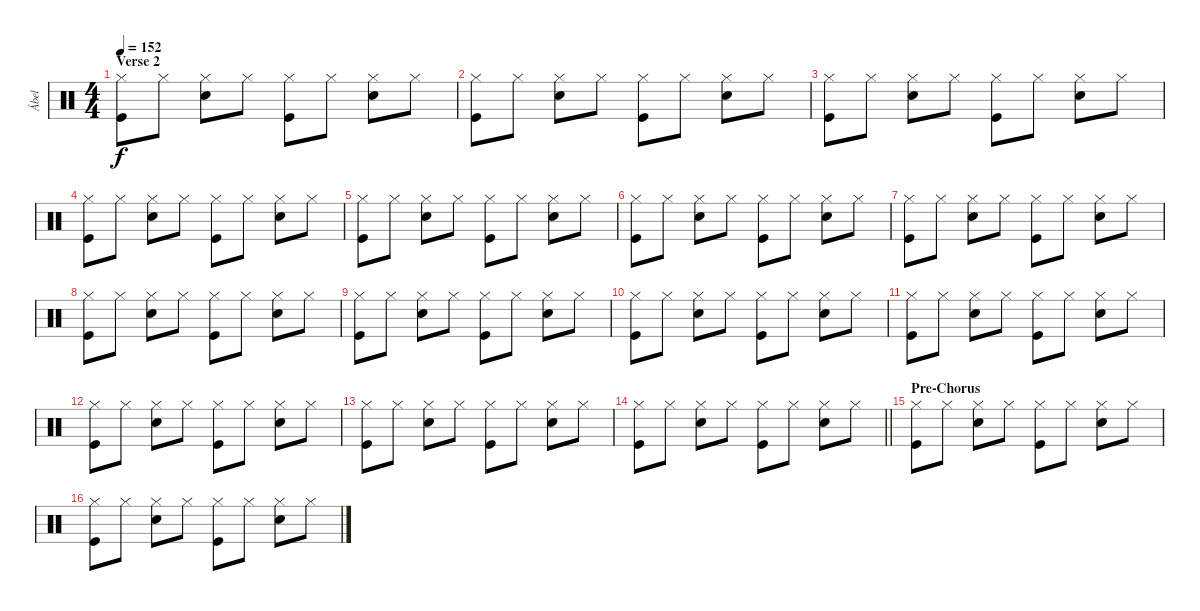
\track ("Ábel" "Ábel") {instrument percussion}
\staff {score}
\articulation defaults
\ts (4 4)
\section ("" "Verse 2")
\tempo 152
\clef neutral
\ks c
("Hi-Hat (closed)" "Kick (hit)").8{dy f} "Hi-Hat (closed)".8 ("Hi-Hat (closed)" "Snare (hit) 2").8 "Hi-Hat (closed)".8 ("Hi-Hat (closed)" "Kick (hit)").8 "Hi-Hat (closed)".8 ("Hi-Hat (closed)" "Snare (hit) 2").8 "Hi-Hat (closed)".8 |
("Hi-Hat (closed)" "Kick (hit)").8 "Hi-Hat (closed)".8 ("Hi-Hat (closed)" "Snare (hit) 2").8 "Hi-Hat (closed)".8 ("Hi-Hat (closed)" "Kick (hit)").8 "Hi-Hat (closed)".8 ("Hi-Hat (closed)" "Snare (hit) 2").8 "Hi-Hat (closed)".8 |
("Hi-Hat (closed)" "Kick (hit)").8 "Hi-Hat (closed)".8 ("Hi-Hat (closed)" "Snare (hit) 2").8 "Hi-Hat (closed)".8 ("Hi-Hat (closed)" "Kick (hit)").8 "Hi-Hat (closed)".8 ("Hi-Hat (closed)" "Snare (hit) 2").8 "Hi-Hat (closed)".8 |
("Hi-Hat (closed)" "Kick (hit)").8 "Hi-Hat (closed)".8 ("Hi-Hat (closed)" "Snare (hit) 2").8 "Hi-Hat (closed)".8 ("Hi-Hat (closed)" "Kick (hit)").8 "Hi-Hat (closed)".8 ("Hi-Hat (closed)" "Snare (hit) 2").8 "Hi-Hat (closed)".8 |
("Hi-Hat (closed)" "Kick (hit)").8 "Hi-Hat (closed)".8 ("Hi-Hat (closed)" "Snare (hit) 2").8 "Hi-Hat (closed)".8 ("Hi-Hat (closed)" "Kick (hit)").8 "Hi-Hat (closed)".8 ("Hi-Hat (closed)" "Snare (hit) 2").8 "Hi-Hat (closed)".8 |
("Hi-Hat (closed)" "Kick (hit)").8 "Hi-Hat (closed)".8 ("Hi-Hat (closed)" "Snare (hit) 2").8 "Hi-Hat (closed)".8 ("Hi-Hat (closed)" "Kick (hit)").8 "Hi-Hat (closed)".8 ("Hi-Hat (closed)" "Snare (hit) 2").8 "Hi-Hat (closed)".8 |
("Hi-Hat (closed)" "Kick (hit)").8 "Hi-Hat (closed)".8 ("Hi-Hat (closed)" "Snare (hit) 2").8 "Hi-Hat (closed)".8 ("Hi-Hat (closed)" "Kick (hit)").8 "Hi-Hat (closed)".8 ("Hi-Hat (closed)" "Snare (hit) 2").8 "Hi-Hat (closed)".8 |
("Hi-Hat (closed)" "Kick (hit)").8 "Hi-Hat (closed)".8 ("Hi-Hat (closed)" "Snare (hit) 2").8 "Hi-Hat (closed)".8 ("Hi-Hat (closed)" "Kick (hit)").8 "Hi-Hat (closed)".8 ("Hi-Hat (closed)" "Snare (hit) 2").8 "Hi-Hat (closed)".8 |
("Hi-Hat (closed)" "Kick (hit)").8 "Hi-Hat (closed)".8 ("Hi-Hat (closed)" "Snare (hit) 2").8 "Hi-Hat (closed)".8 ("Hi-Hat (closed)" "Kick (hit)").8 "Hi-Hat (closed)".8 ("Hi-Hat (closed)" "Snare (hit) 2").8 "Hi-Hat (closed)".8 |
("Hi-Hat (closed)" "Kick (hit)").8 "Hi-Hat (closed)".8 ("Hi-Hat (closed)" "Snare (hit) 2").8 "Hi-Hat (closed)".8 ("Hi-Hat (closed)" "Kick (hit)").8 "Hi-Hat (closed)".8 ("Hi-Hat (closed)" "Snare (hit) 2").8 "Hi-Hat (closed)".8 |
("Hi-Hat (closed)" "Kick (hit)").8 "Hi-Hat (closed)".8 ("Hi-Hat (closed)" "Snare (hit) 2").8 "Hi-Hat (closed)".8 ("Hi-Hat (closed)" "Kick (hit)").8 "Hi-Hat (closed)".8 ("Hi-Hat (closed)" "Snare (hit) 2").8 "Hi-Hat (closed)".8 |
("Hi-Hat (closed)" "Kick (hit)").8 "Hi-Hat (closed)".8 ("Hi-Hat (closed)" "Snare (hit) 2").8 "Hi-Hat (closed)".8 ("Hi-Hat (closed)" "Kick (hit)").8 "Hi-Hat (closed)".8 ("Hi-Hat (closed)" "Snare (hit) 2").8 "Hi-Hat (closed)".8 |
("Hi-Hat (closed)" "Kick (hit)").8 "Hi-Hat (closed)".8 ("Hi-Hat (closed)" "Snare (hit) 2").8 "Hi-Hat (closed)".8 ("Hi-Hat (closed)" "Kick (hit)").8 "Hi-Hat (closed)".8 ("Hi-Hat (closed)" "Snare (hit) 2").8 "Hi-Hat (closed)".8 |
\barLineRight lightlight
("Hi-Hat (closed)" "Kick (hit)").8 "Hi-Hat (closed)".8 ("Hi-Hat (closed)" "Snare (hit) 2").8 "Hi-Hat (closed)".8 ("Hi-Hat (closed)" "Kick (hit)").8 "Hi-Hat (closed)".8 ("Hi-Hat (closed)" "Snare (hit) 2").8 "Hi-Hat (closed)".8 |
\section ("" "Pre-Chorus")
("Hi-Hat (closed)" "Kick (hit)").8 "Hi-Hat (closed)".8 ("Hi-Hat (closed)" "Snare (hit) 2").8 "Hi-Hat (closed)".8 ("Hi-Hat (closed)" "Kick (hit)").8 "Hi-Hat (closed)".8 ("Hi-Hat (closed)" "Snare (hit) 2").8 "Hi-Hat (closed)".8 |
("Hi-Hat (closed)" "Kick (hit)").8 "Hi-Hat (closed)".8 ("Hi-Hat (closed)" "Snare (hit) 2").8 "Hi-Hat (closed)".8 ("Hi-Hat (closed)" "Kick (hit)").8 "Hi-Hat (closed)".8 ("Hi-Hat (closed)" "Snare (hit) 2").8 "Hi-Hat (closed)".8
